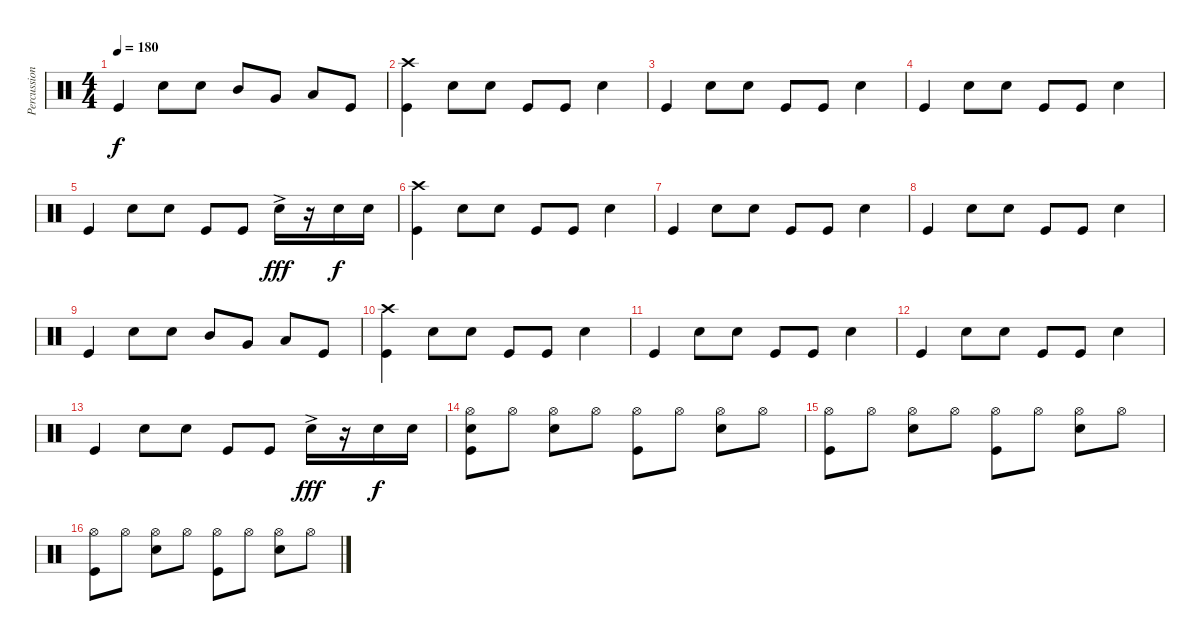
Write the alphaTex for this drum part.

\track ("Percussion" "Percussion") {instrument percussion}
\staff {score}
\articulation defaults
\ts (4 4)
\tempo 180
\clef neutral
\ks c "Kick (hit)".4{dy f} "Snare (hit) 2".8 "Snare (hit) 2".8 "Mid Tom (hit)".8 "Very Low Tom (hit)".8 "Low Tom (hit)".8 "Kick (hit)".8
|
("Crash high (hit)" "Kick (hit)").4 "Snare (hit) 2".8 "Snare (hit) 2".8 "Kick (hit)".8 "Kick (hit)".8 "Snare (hit) 2".4 |
"Kick (hit)".4 "Snare (hit) 2".8 "Snare (hit) 2".8 "Kick (hit)".8 "Kick (hit)".8 "Snare (hit) 2".4 |
"Kick (hit)".4 "Snare (hit) 2".8 "Snare (hit) 2".8 "Kick (hit)".8 "Kick (hit)".8 "Snare (hit) 2".4 |
"Kick (hit)".4 "Snare (hit) 2".8 "Snare (hit) 2".8 "Kick (hit)".8 "Kick (hit)".8 "Snare (hit) 2"{ac}.16{dy fff} r.16 "Snare (hit) 2".16{dy f} "Snare (hit) 2".16 |
("Crash high (hit)" "Kick (hit)").4 "Snare (hit) 2".8 "Snare (hit) 2".8 "Kick (hit)".8 "Kick (hit)".8 "Snare (hit) 2".4 |
"Kick (hit)".4 "Snare (hit) 2".8 "Snare (hit) 2".8 "Kick (hit)".8 "Kick (hit)".8 "Snare (hit) 2".4 |
"Kick (hit)".4 "Snare (hit) 2".8 "Snare (hit) 2".8 "Kick (hit)".8 "Kick (hit)".8 "Snare (hit) 2".4 |
"Kick (hit)".4 "Snare (hit) 2".8 "Snare (hit) 2".8 "Mid Tom (hit)".8 "Very Low Tom (hit)".8 "Low Tom (hit)".8 "Kick (hit)".8 |
("Crash high (hit)" "Kick (hit)").4 "Snare (hit) 2".8 "Snare (hit) 2".8 "Kick (hit)".8 "Kick (hit)".8 "Snare (hit) 2".4 |
"Kick (hit)".4 "Snare (hit) 2".8 "Snare (hit) 2".8 "Kick (hit)".8 "Kick (hit)".8 "Snare (hit) 2".4 |
"Kick (hit)".4 "Snare (hit) 2".8 "Snare (hit) 2".8 "Kick (hit)".8 "Kick (hit)".8 "Snare (hit) 2".4 |
"Kick (hit)".4 "Snare (hit) 2".8 "Snare (hit) 2".8 "Kick (hit)".8 "Kick (hit)".8 "Snare (hit) 2"{ac}.16{dy fff} r.16 "Snare (hit) 2".16{dy f} "Snare (hit) 2".16 |
("Hi-Hat (open)" "Snare (hit) 2" "Kick (hit)").8 "Hi-Hat (open)".8 ("Hi-Hat (open)" "Snare (hit) 2").8 "Hi-Hat (open)".8 ("Hi-Hat (open)" "Kick (hit)").8 "Hi-Hat (open)".8 ("Hi-Hat (open)" "Snare (hit) 2").8 "Hi-Hat (open)".8 |
("Hi-Hat (open)" "Kick (hit)").8 "Hi-Hat (open)".8 ("Hi-Hat (open)" "Snare (hit) 2").8 "Hi-Hat (open)".8 ("Hi-Hat (open)" "Kick (hit)").8 "Hi-Hat (open)".8 ("Hi-Hat (open)" "Snare (hit) 2").8 "Hi-Hat (open)".8 |
("Hi-Hat (open)" "Kick (hit)").8 "Hi-Hat (open)".8 ("Hi-Hat (open)" "Snare (hit) 2").8 "Hi-Hat (open)".8 ("Hi-Hat (open)" "Kick (hit)").8 "Hi-Hat (open)".8 ("Hi-Hat (open)" "Snare (hit) 2").8 "Hi-Hat (open)".8
